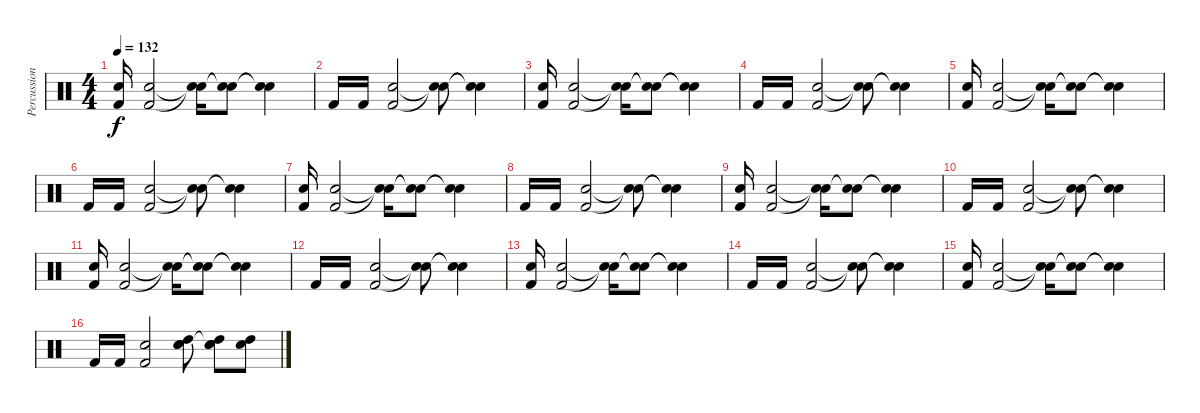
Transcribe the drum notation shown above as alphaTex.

\track ("Percussion" "Percussion") {instrument percussion}
\staff {score}
\articulation defaults
\ts (4 4)
\tempo 132
\clef neutral
\ks c
("Electric Snare (hit)" "Kick (hit) 2").16{dy f} ("Electric Snare (hit)" "Kick (hit) 2").2 ("Snare (hit)"{t} "Snare (hit)"{t}).16 ("Snare (hit)"{t} "Snare (hit)"{t}).8 ("Snare (hit)"{t} "Snare (hit)"{t}).4 |
"Kick (hit) 2".16 "Kick (hit) 2".16 ("Electric Snare (hit)" "Kick (hit) 2").2 ("Snare (hit)"{t} "Snare (hit)"{t}).8 ("Snare (hit)"{t} "Snare (hit)"{t}).4 |
("Electric Snare (hit)" "Kick (hit) 2").16 ("Electric Snare (hit)" "Kick (hit) 2").2 ("Snare (hit)"{t} "Snare (hit)"{t}).16 ("Snare (hit)"{t} "Snare (hit)"{t}).8 ("Snare (hit)"{t} "Snare (hit)"{t}).4 |
"Kick (hit) 2".16 "Kick (hit) 2".16 ("Electric Snare (hit)" "Kick (hit) 2").2 ("Snare (hit)"{t} "Snare (hit)"{t}).8 ("Snare (hit)"{t} "Snare (hit)"{t}).4 |
("Electric Snare (hit)" "Kick (hit) 2").16 ("Electric Snare (hit)" "Kick (hit) 2").2 ("Snare (hit)"{t} "Snare (hit)"{t}).16 ("Snare (hit)"{t} "Snare (hit)"{t}).8 ("Snare (hit)"{t} "Snare (hit)"{t}).4 |
"Kick (hit) 2".16 "Kick (hit) 2".16 ("Electric Snare (hit)" "Kick (hit) 2").2 ("Snare (hit)"{t} "Snare (hit)"{t}).8 ("Snare (hit)"{t} "Snare (hit)"{t}).4 |
("Electric Snare (hit)" "Kick (hit) 2").16 ("Electric Snare (hit)" "Kick (hit) 2").2 ("Snare (hit)"{t} "Snare (hit)"{t}).16 ("Snare (hit)"{t} "Snare (hit)"{t}).8 ("Snare (hit)"{t} "Snare (hit)"{t}).4 |
"Kick (hit) 2".16 "Kick (hit) 2".16 ("Electric Snare (hit)" "Kick (hit) 2").2 ("Snare (hit)"{t} "Snare (hit)"{t}).8 ("Snare (hit)"{t} "Snare (hit)"{t}).4 |
("Electric Snare (hit)" "Kick (hit) 2").16 ("Electric Snare (hit)" "Kick (hit) 2").2 ("Snare (hit)"{t} "Snare (hit)"{t}).16 ("Snare (hit)"{t} "Snare (hit)"{t}).8 ("Snare (hit)"{t} "Snare (hit)"{t}).4 |
"Kick (hit) 2".16 "Kick (hit) 2".16 ("Electric Snare (hit)" "Kick (hit) 2").2 ("Snare (hit)"{t} "Snare (hit)"{t}).8 ("Snare (hit)"{t} "Snare (hit)"{t}).4 |
("Electric Snare (hit)" "Kick (hit) 2").16 ("Electric Snare (hit)" "Kick (hit) 2").2 ("Snare (hit)"{t} "Snare (hit)"{t}).16 ("Snare (hit)"{t} "Snare (hit)"{t}).8 ("Snare (hit)"{t} "Snare (hit)"{t}).4 |
"Kick (hit) 2".16 "Kick (hit) 2".16 ("Electric Snare (hit)" "Kick (hit) 2").2 ("Snare (hit)"{t} "Snare (hit)"{t}).8 ("Snare (hit)"{t} "Snare (hit)"{t}).4 |
("Electric Snare (hit)" "Kick (hit) 2").16 ("Electric Snare (hit)" "Kick (hit) 2").2 ("Snare (hit)"{t} "Snare (hit)"{t}).16 ("Snare (hit)"{t} "Snare (hit)"{t}).8 ("Snare (hit)"{t} "Snare (hit)"{t}).4 |
"Kick (hit) 2".16 "Kick (hit) 2".16 ("Electric Snare (hit)" "Kick (hit) 2").2 ("Snare (hit)"{t} "Snare (hit)"{t}).8 ("Snare (hit)"{t} "Snare (hit)"{t}).4 |
("Electric Snare (hit)" "Kick (hit) 2").16 ("Electric Snare (hit)" "Kick (hit) 2").2 ("Snare (hit)"{t} "Snare (hit)"{t}).16 ("Snare (hit)"{t} "Snare (hit)"{t}).8 ("Snare (hit)"{t} "Snare (hit)"{t}).4 |
"Kick (hit) 2".16 "Kick (hit) 2".16 ("Electric Snare (hit)" "Kick (hit) 2").2 ("Electric Snare (hit)" "High Tom (hit)" "Snare (hit)").8 ("Electric Snare (hit)" "High Tom (hit)" "Snare (hit)"{t}).8 ("Electric Snare (hit)" "High Tom (hit)").8
